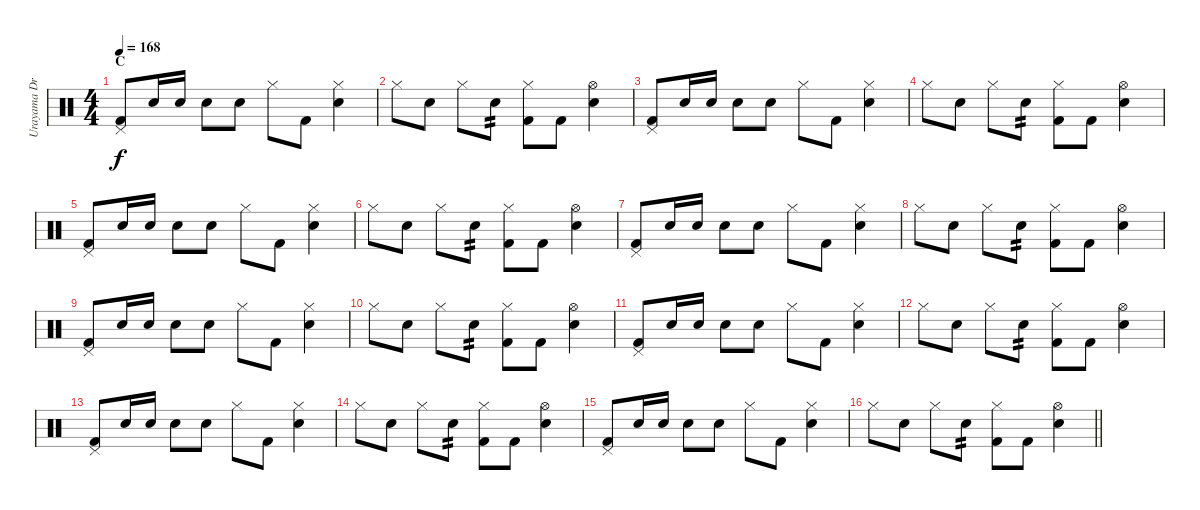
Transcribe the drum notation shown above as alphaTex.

\track ("Urayama Drums" "Urayama Dr") {instrument percussion}
\staff {score}
\articulation defaults
\ts (4 4)
\section ("" "C")
\tempo 168
\clef neutral
\ks c
("Pedal Hi-Hat (hit)" "Kick (hit) 2").8{dy f} "Snare (hit) 2".16 "Snare (hit) 2".16 "Snare (hit) 2".8 "Snare (hit) 2".8 "Hi-Hat (closed)".8 "Kick (hit) 2".8 ("Hi-Hat (closed)" "Snare (hit) 2").4 |
"Hi-Hat (closed)".8 "Snare (hit) 2".8 "Hi-Hat (closed)".8 "Snare (hit) 2".8{tp 2} ("Hi-Hat (closed)" "Kick (hit) 2").8 "Kick (hit) 2".8 ("Hi-Hat (open)" "Snare (hit) 2").4 |
("Pedal Hi-Hat (hit)" "Kick (hit) 2").8 "Snare (hit) 2".16 "Snare (hit) 2".16 "Snare (hit) 2".8 "Snare (hit) 2".8 "Hi-Hat (closed)".8 "Kick (hit) 2".8 ("Hi-Hat (closed)" "Snare (hit) 2").4 |
"Hi-Hat (closed)".8 "Snare (hit) 2".8 "Hi-Hat (closed)".8 "Snare (hit) 2".8{tp 2} ("Hi-Hat (closed)" "Kick (hit) 2").8 "Kick (hit) 2".8 ("Hi-Hat (open)" "Snare (hit) 2").4 |
("Pedal Hi-Hat (hit)" "Kick (hit) 2").8 "Snare (hit) 2".16 "Snare (hit) 2".16 "Snare (hit) 2".8 "Snare (hit) 2".8 "Hi-Hat (closed)".8 "Kick (hit) 2".8 ("Hi-Hat (closed)" "Snare (hit) 2").4 |
"Hi-Hat (closed)".8 "Snare (hit) 2".8 "Hi-Hat (closed)".8 "Snare (hit) 2".8{tp 2} ("Hi-Hat (closed)" "Kick (hit) 2").8 "Kick (hit) 2".8 ("Hi-Hat (open)" "Snare (hit) 2").4 |
("Pedal Hi-Hat (hit)" "Kick (hit) 2").8 "Snare (hit) 2".16 "Snare (hit) 2".16 "Snare (hit) 2".8 "Snare (hit) 2".8 "Hi-Hat (closed)".8 "Kick (hit) 2".8 ("Hi-Hat (closed)" "Snare (hit) 2").4 |
"Hi-Hat (closed)".8 "Snare (hit) 2".8 "Hi-Hat (closed)".8 "Snare (hit) 2".8{tp 2} ("Hi-Hat (closed)" "Kick (hit) 2").8 "Kick (hit) 2".8 ("Hi-Hat (open)" "Snare (hit) 2").4 |
("Pedal Hi-Hat (hit)" "Kick (hit) 2").8 "Snare (hit) 2".16 "Snare (hit) 2".16 "Snare (hit) 2".8 "Snare (hit) 2".8 "Hi-Hat (closed)".8 "Kick (hit) 2".8 ("Hi-Hat (closed)" "Snare (hit) 2").4 |
"Hi-Hat (closed)".8 "Snare (hit) 2".8 "Hi-Hat (closed)".8 "Snare (hit) 2".8{tp 2} ("Hi-Hat (closed)" "Kick (hit) 2").8 "Kick (hit) 2".8 ("Hi-Hat (open)" "Snare (hit) 2").4 |
("Pedal Hi-Hat (hit)" "Kick (hit) 2").8 "Snare (hit) 2".16 "Snare (hit) 2".16 "Snare (hit) 2".8 "Snare (hit) 2".8 "Hi-Hat (closed)".8 "Kick (hit) 2".8 ("Hi-Hat (closed)" "Snare (hit) 2").4 |
"Hi-Hat (closed)".8 "Snare (hit) 2".8 "Hi-Hat (closed)".8 "Snare (hit) 2".8{tp 2} ("Hi-Hat (closed)" "Kick (hit) 2").8 "Kick (hit) 2".8 ("Hi-Hat (open)" "Snare (hit) 2").4 |
("Pedal Hi-Hat (hit)" "Kick (hit) 2").8 "Snare (hit) 2".16 "Snare (hit) 2".16 "Snare (hit) 2".8 "Snare (hit) 2".8 "Hi-Hat (closed)".8 "Kick (hit) 2".8 ("Hi-Hat (closed)" "Snare (hit) 2").4 |
"Hi-Hat (closed)".8 "Snare (hit) 2".8 "Hi-Hat (closed)".8 "Snare (hit) 2".8{tp 2} ("Hi-Hat (closed)" "Kick (hit) 2").8 "Kick (hit) 2".8 ("Hi-Hat (open)" "Snare (hit) 2").4 |
("Pedal Hi-Hat (hit)" "Kick (hit) 2").8 "Snare (hit) 2".16 "Snare (hit) 2".16 "Snare (hit) 2".8 "Snare (hit) 2".8 "Hi-Hat (closed)".8 "Kick (hit) 2".8 ("Hi-Hat (closed)" "Snare (hit) 2").4 |
\barLineRight lightlight "Hi-Hat (closed)".8 "Snare (hit) 2".8 "Hi-Hat (closed)".8 "Snare (hit) 2".8{tp 2}
("Hi-Hat (closed)" "Kick (hit) 2").8 "Kick (hit) 2".8 ("Hi-Hat (open)" "Snare (hit) 2").4
